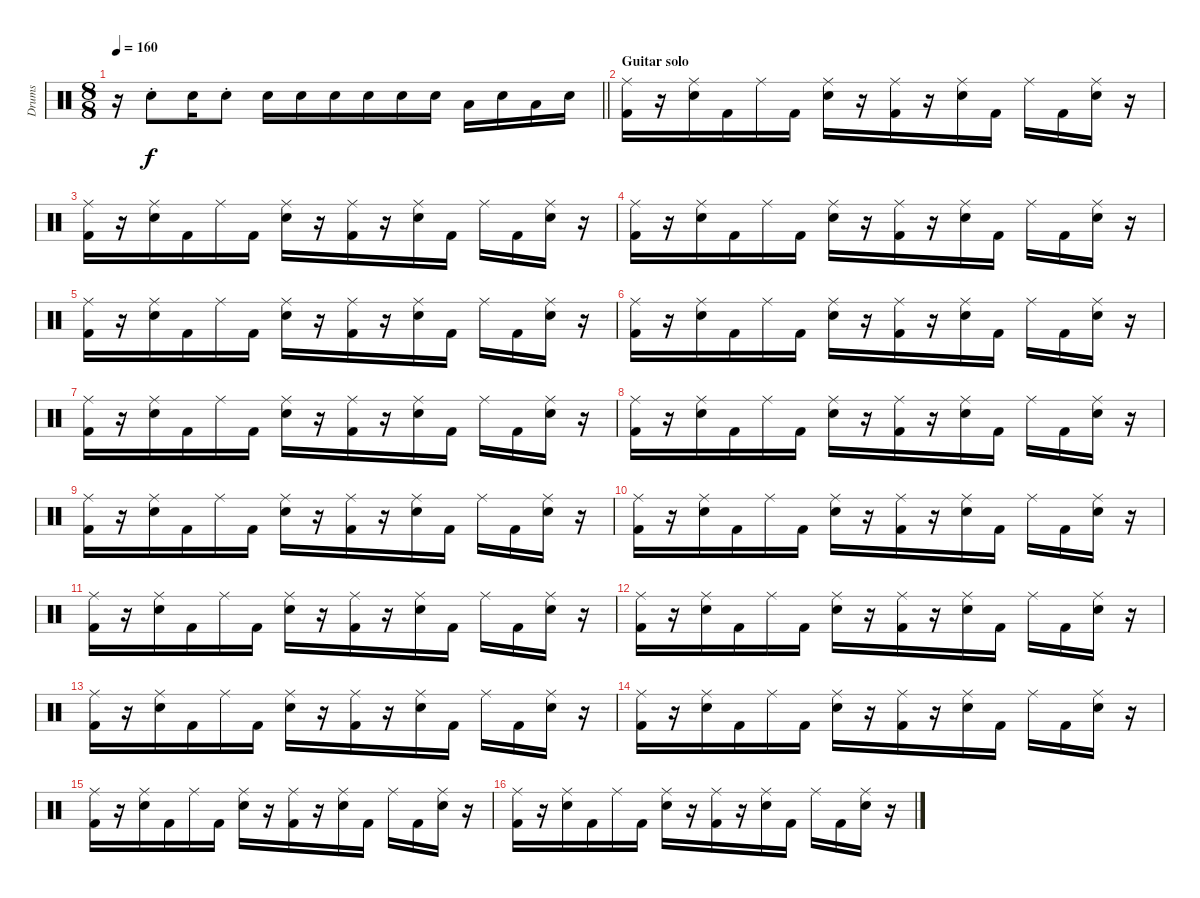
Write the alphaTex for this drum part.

\track ("Drums" "Drums") {instrument percussion}
\staff {score}
\articulation defaults
\ts (8 8)
\tempo 160
\clef neutral
\barLineRight lightlight
\ks c
r.16{dy pp} "Snare (hit) 2"{st}.8{dy f} "Snare (hit) 2".16 "Snare (hit) 2"{st}.8 "Snare (hit) 2".16 "Snare (hit) 2".16 "Snare (hit) 2".16 "Snare (hit) 2".16 "Snare (hit) 2".16 "Snare (hit) 2".16 "Low Tom (hit)".16 "Snare (hit) 2".16 "Low Tom (hit)".16 "Snare (hit) 2".16 |
\section ("" "Guitar solo")
("Ride (middle)" "Kick (hit) 2").16 r.16 ("Ride (middle)" "Snare (hit) 2").16 "Kick (hit) 2".16 "Ride (middle)".16 "Kick (hit) 2".16 ("Ride (middle)" "Snare (hit) 2").16 r.16 ("Ride (middle)" "Kick (hit) 2").16 r.16 ("Ride (middle)" "Snare (hit) 2").16 "Kick (hit) 2".16 "Ride (middle)".16 "Kick (hit) 2".16 ("Ride (middle)" "Snare (hit) 2").16 r.16 |
("Ride (middle)" "Kick (hit) 2").16 r.16 ("Ride (middle)" "Snare (hit) 2").16 "Kick (hit) 2".16 "Ride (middle)".16 "Kick (hit) 2".16 ("Ride (middle)" "Snare (hit) 2").16 r.16 ("Ride (middle)" "Kick (hit) 2").16 r.16 ("Ride (middle)" "Snare (hit) 2").16 "Kick (hit) 2".16 "Ride (middle)".16 "Kick (hit) 2".16 ("Ride (middle)" "Snare (hit) 2").16 r.16 |
("Ride (middle)" "Kick (hit) 2").16 r.16 ("Ride (middle)" "Snare (hit) 2").16 "Kick (hit) 2".16 "Ride (middle)".16 "Kick (hit) 2".16 ("Ride (middle)" "Snare (hit) 2").16 r.16 ("Ride (middle)" "Kick (hit) 2").16 r.16 ("Ride (middle)" "Snare (hit) 2").16 "Kick (hit) 2".16 "Ride (middle)".16 "Kick (hit) 2".16 ("Ride (middle)" "Snare (hit) 2").16 r.16 |
("Ride (middle)" "Kick (hit) 2").16 r.16 ("Ride (middle)" "Snare (hit) 2").16 "Kick (hit) 2".16 "Ride (middle)".16 "Kick (hit) 2".16 ("Ride (middle)" "Snare (hit) 2").16 r.16 ("Ride (middle)" "Kick (hit) 2").16 r.16 ("Ride (middle)" "Snare (hit) 2").16 "Kick (hit) 2".16 "Ride (middle)".16 "Kick (hit) 2".16 ("Ride (middle)" "Snare (hit) 2").16 r.16 |
("Ride (middle)" "Kick (hit) 2").16 r.16 ("Ride (middle)" "Snare (hit) 2").16 "Kick (hit) 2".16 "Ride (middle)".16 "Kick (hit) 2".16 ("Ride (middle)" "Snare (hit) 2").16 r.16 ("Ride (middle)" "Kick (hit) 2").16 r.16 ("Ride (middle)" "Snare (hit) 2").16 "Kick (hit) 2".16 "Ride (middle)".16 "Kick (hit) 2".16 ("Ride (middle)" "Snare (hit) 2").16 r.16 |
("Ride (middle)" "Kick (hit) 2").16 r.16 ("Ride (middle)" "Snare (hit) 2").16 "Kick (hit) 2".16 "Ride (middle)".16 "Kick (hit) 2".16 ("Ride (middle)" "Snare (hit) 2").16 r.16 ("Ride (middle)" "Kick (hit) 2").16 r.16 ("Ride (middle)" "Snare (hit) 2").16 "Kick (hit) 2".16 "Ride (middle)".16 "Kick (hit) 2".16 ("Ride (middle)" "Snare (hit) 2").16 r.16 |
("Ride (middle)" "Kick (hit) 2").16 r.16 ("Ride (middle)" "Snare (hit) 2").16 "Kick (hit) 2".16 "Ride (middle)".16 "Kick (hit) 2".16 ("Ride (middle)" "Snare (hit) 2").16 r.16 ("Ride (middle)" "Kick (hit) 2").16 r.16 ("Ride (middle)" "Snare (hit) 2").16 "Kick (hit) 2".16 "Ride (middle)".16 "Kick (hit) 2".16 ("Ride (middle)" "Snare (hit) 2").16 r.16 |
("Ride (middle)" "Kick (hit) 2").16 r.16 ("Ride (middle)" "Snare (hit) 2").16 "Kick (hit) 2".16 "Ride (middle)".16 "Kick (hit) 2".16 ("Ride (middle)" "Snare (hit) 2").16 r.16 ("Ride (middle)" "Kick (hit) 2").16 r.16 ("Ride (middle)" "Snare (hit) 2").16 "Kick (hit) 2".16 "Ride (middle)".16 "Kick (hit) 2".16 ("Ride (middle)" "Snare (hit) 2").16 r.16 |
("Ride (middle)" "Kick (hit) 2").16 r.16 ("Ride (middle)" "Snare (hit) 2").16 "Kick (hit) 2".16 "Ride (middle)".16 "Kick (hit) 2".16 ("Ride (middle)" "Snare (hit) 2").16 r.16 ("Ride (middle)" "Kick (hit) 2").16 r.16 ("Ride (middle)" "Snare (hit) 2").16 "Kick (hit) 2".16 "Ride (middle)".16 "Kick (hit) 2".16 ("Ride (middle)" "Snare (hit) 2").16 r.16 |
("Ride (middle)" "Kick (hit) 2").16 r.16 ("Ride (middle)" "Snare (hit) 2").16 "Kick (hit) 2".16 "Ride (middle)".16 "Kick (hit) 2".16 ("Ride (middle)" "Snare (hit) 2").16 r.16 ("Ride (middle)" "Kick (hit) 2").16 r.16 ("Ride (middle)" "Snare (hit) 2").16 "Kick (hit) 2".16 "Ride (middle)".16 "Kick (hit) 2".16 ("Ride (middle)" "Snare (hit) 2").16 r.16 |
("Ride (middle)" "Kick (hit) 2").16 r.16 ("Ride (middle)" "Snare (hit) 2").16 "Kick (hit) 2".16 "Ride (middle)".16 "Kick (hit) 2".16 ("Ride (middle)" "Snare (hit) 2").16 r.16 ("Ride (middle)" "Kick (hit) 2").16 r.16 ("Ride (middle)" "Snare (hit) 2").16 "Kick (hit) 2".16 "Ride (middle)".16 "Kick (hit) 2".16 ("Ride (middle)" "Snare (hit) 2").16 r.16 |
("Ride (middle)" "Kick (hit) 2").16 r.16 ("Ride (middle)" "Snare (hit) 2").16 "Kick (hit) 2".16 "Ride (middle)".16 "Kick (hit) 2".16 ("Ride (middle)" "Snare (hit) 2").16 r.16 ("Ride (middle)" "Kick (hit) 2").16 r.16 ("Ride (middle)" "Snare (hit) 2").16 "Kick (hit) 2".16 "Ride (middle)".16 "Kick (hit) 2".16 ("Ride (middle)" "Snare (hit) 2").16 r.16 |
("Ride (middle)" "Kick (hit) 2").16 r.16 ("Ride (middle)" "Snare (hit) 2").16 "Kick (hit) 2".16 "Ride (middle)".16 "Kick (hit) 2".16 ("Ride (middle)" "Snare (hit) 2").16 r.16 ("Ride (middle)" "Kick (hit) 2").16 r.16 ("Ride (middle)" "Snare (hit) 2").16 "Kick (hit) 2".16 "Ride (middle)".16 "Kick (hit) 2".16 ("Ride (middle)" "Snare (hit) 2").16 r.16 |
("Ride (middle)" "Kick (hit) 2").16 r.16 ("Ride (middle)" "Snare (hit) 2").16 "Kick (hit) 2".16 "Ride (middle)".16 "Kick (hit) 2".16 ("Ride (middle)" "Snare (hit) 2").16 r.16 ("Ride (middle)" "Kick (hit) 2").16 r.16 ("Ride (middle)" "Snare (hit) 2").16 "Kick (hit) 2".16 "Ride (middle)".16 "Kick (hit) 2".16 ("Ride (middle)" "Snare (hit) 2").16 r.16 |
("Ride (middle)" "Kick (hit) 2").16 r.16 ("Ride (middle)" "Snare (hit) 2").16 "Kick (hit) 2".16 "Ride (middle)".16 "Kick (hit) 2".16 ("Ride (middle)" "Snare (hit) 2").16 r.16 ("Ride (middle)" "Kick (hit) 2").16 r.16 ("Ride (middle)" "Snare (hit) 2").16 "Kick (hit) 2".16 "Ride (middle)".16 "Kick (hit) 2".16 ("Ride (middle)" "Snare (hit) 2").16 r.16
